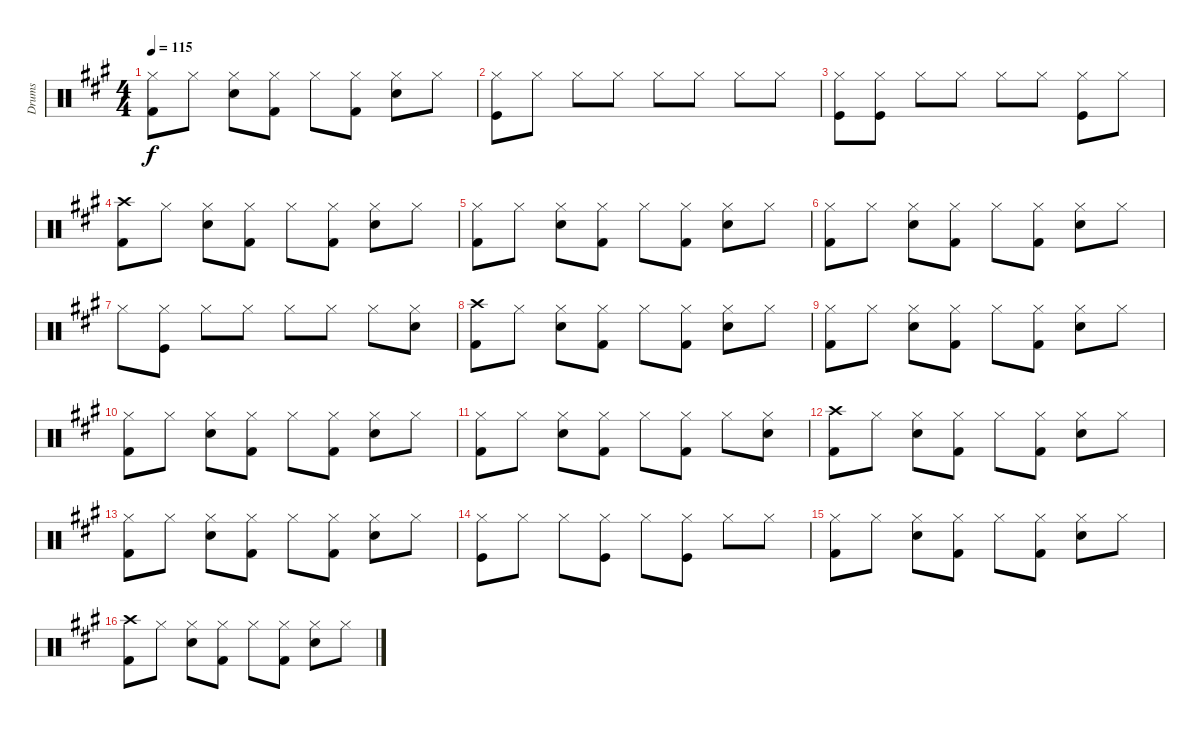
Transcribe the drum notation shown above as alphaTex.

\track ("Drums" "Drums") {instrument percussion}
\staff {score}
\articulation defaults
\ts (4 4)
\tempo 115
\clef neutral
\ks f#minor
("Kick (hit) 2" "Hi-Hat (closed)").8{dy f} "Hi-Hat (closed)".8 ("Snare (hit) 2" "Hi-Hat (closed)").8 ("Kick (hit) 2" "Hi-Hat (closed)").8 "Hi-Hat (closed)".8 ("Kick (hit) 2" "Hi-Hat (closed)").8 ("Snare (hit) 2" "Hi-Hat (closed)").8 "Hi-Hat (closed)".8 |
("Kick (hit)" "Hi-Hat (closed)").8 "Hi-Hat (closed)".8 "Hi-Hat (closed)".8 "Hi-Hat (closed)".8 "Hi-Hat (closed)".8 "Hi-Hat (closed)".8 "Hi-Hat (closed)".8 "Hi-Hat (closed)".8 |
("Kick (hit)" "Hi-Hat (closed)").8 ("Hi-Hat (closed)" "Kick (hit)").8 "Hi-Hat (closed)".8 "Hi-Hat (closed)".8 "Hi-Hat (closed)".8 "Hi-Hat (closed)".8 ("Hi-Hat (closed)" "Kick (hit)").8 "Hi-Hat (closed)".8 |
("Kick (hit) 2" "Crash high (hit)").8 "Hi-Hat (closed)".8 ("Snare (hit) 2" "Hi-Hat (closed)").8 ("Kick (hit) 2" "Hi-Hat (closed)").8 "Hi-Hat (closed)".8 ("Kick (hit) 2" "Hi-Hat (closed)").8 ("Snare (hit) 2" "Hi-Hat (closed)").8 "Hi-Hat (closed)".8 |
("Kick (hit) 2" "Hi-Hat (closed)").8 "Hi-Hat (closed)".8 ("Snare (hit) 2" "Hi-Hat (closed)").8 ("Kick (hit) 2" "Hi-Hat (closed)").8 "Hi-Hat (closed)".8 ("Kick (hit) 2" "Hi-Hat (closed)").8 ("Snare (hit) 2" "Hi-Hat (closed)").8 "Hi-Hat (closed)".8 |
("Kick (hit) 2" "Hi-Hat (closed)").8 "Hi-Hat (closed)".8 ("Snare (hit) 2" "Hi-Hat (closed)").8 ("Kick (hit) 2" "Hi-Hat (closed)").8 "Hi-Hat (closed)".8 ("Kick (hit) 2" "Hi-Hat (closed)").8 ("Snare (hit) 2" "Hi-Hat (closed)").8 "Hi-Hat (closed)".8 |
"Hi-Hat (closed)".8 ("Hi-Hat (closed)" "Kick (hit)").8 "Hi-Hat (closed)".8 "Hi-Hat (closed)".8 "Hi-Hat (closed)".8 "Hi-Hat (closed)".8 "Hi-Hat (closed)".8 ("Hi-Hat (closed)" "Snare (hit) 2").8 |
("Kick (hit) 2" "Crash high (hit)").8 "Hi-Hat (closed)".8 ("Snare (hit) 2" "Hi-Hat (closed)").8 ("Kick (hit) 2" "Hi-Hat (closed)").8 "Hi-Hat (closed)".8 ("Kick (hit) 2" "Hi-Hat (closed)").8 ("Snare (hit) 2" "Hi-Hat (closed)").8 "Hi-Hat (closed)".8 |
("Kick (hit) 2" "Hi-Hat (closed)").8 "Hi-Hat (closed)".8 ("Snare (hit) 2" "Hi-Hat (closed)").8 ("Kick (hit) 2" "Hi-Hat (closed)").8 "Hi-Hat (closed)".8 ("Kick (hit) 2" "Hi-Hat (closed)").8 ("Snare (hit) 2" "Hi-Hat (closed)").8 "Hi-Hat (closed)".8 |
("Kick (hit) 2" "Hi-Hat (closed)").8 "Hi-Hat (closed)".8 ("Snare (hit) 2" "Hi-Hat (closed)").8 ("Kick (hit) 2" "Hi-Hat (closed)").8 "Hi-Hat (closed)".8 ("Kick (hit) 2" "Hi-Hat (closed)").8 ("Snare (hit) 2" "Hi-Hat (closed)").8 "Hi-Hat (closed)".8 |
("Kick (hit) 2" "Hi-Hat (closed)").8 "Hi-Hat (closed)".8 ("Snare (hit) 2" "Hi-Hat (closed)").8 ("Kick (hit) 2" "Hi-Hat (closed)").8 "Hi-Hat (closed)".8 ("Kick (hit) 2" "Hi-Hat (closed)").8 "Hi-Hat (closed)".8 ("Snare (hit) 2" "Hi-Hat (closed)").8 |
("Kick (hit) 2" "Crash high (hit)").8 "Hi-Hat (closed)".8 ("Snare (hit) 2" "Hi-Hat (closed)").8 ("Kick (hit) 2" "Hi-Hat (closed)").8 "Hi-Hat (closed)".8 ("Kick (hit) 2" "Hi-Hat (closed)").8 ("Snare (hit) 2" "Hi-Hat (closed)").8 "Hi-Hat (closed)".8 |
("Kick (hit) 2" "Hi-Hat (closed)").8 "Hi-Hat (closed)".8 ("Snare (hit) 2" "Hi-Hat (closed)").8 ("Kick (hit) 2" "Hi-Hat (closed)").8 "Hi-Hat (closed)".8 ("Kick (hit) 2" "Hi-Hat (closed)").8 ("Snare (hit) 2" "Hi-Hat (closed)").8 "Hi-Hat (closed)".8 |
("Hi-Hat (closed)" "Kick (hit)").8 "Hi-Hat (closed)".8 "Hi-Hat (closed)".8 ("Hi-Hat (closed)" "Kick (hit)").8 "Hi-Hat (closed)".8 ("Hi-Hat (closed)" "Kick (hit)").8 "Hi-Hat (closed)".8 "Hi-Hat (closed)".8 |
("Kick (hit) 2" "Hi-Hat (closed)").8 "Hi-Hat (closed)".8 ("Snare (hit) 2" "Hi-Hat (closed)").8 ("Kick (hit) 2" "Hi-Hat (closed)").8 "Hi-Hat (closed)".8 ("Kick (hit) 2" "Hi-Hat (closed)").8 ("Snare (hit) 2" "Hi-Hat (closed)").8 "Hi-Hat (closed)".8 |
("Kick (hit) 2" "Crash high (hit)").8 "Hi-Hat (closed)".8 ("Snare (hit) 2" "Hi-Hat (closed)").8 ("Kick (hit) 2" "Hi-Hat (closed)").8 "Hi-Hat (closed)".8 ("Kick (hit) 2" "Hi-Hat (closed)").8 ("Snare (hit) 2" "Hi-Hat (closed)").8 "Hi-Hat (closed)".8
